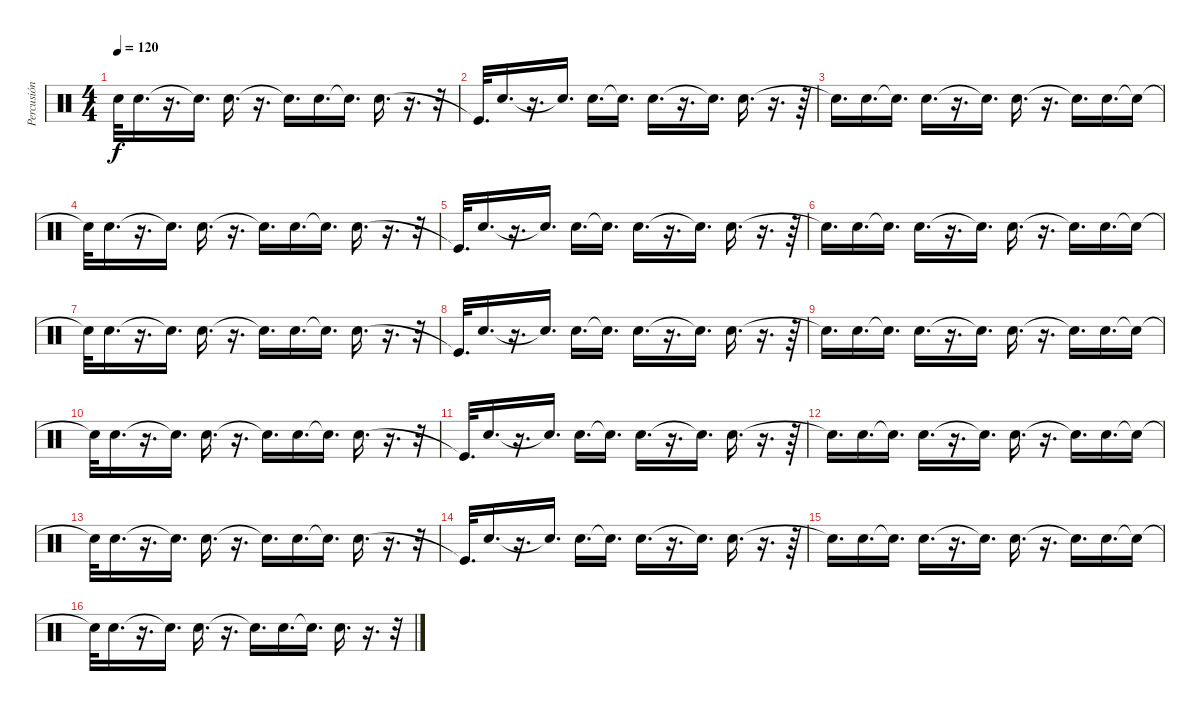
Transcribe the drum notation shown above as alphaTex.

\track ("Percusión" "Percusión") {instrument percussion}
\staff {score}
\articulation defaults
\ts (4 4)
\tempo 120
\clef neutral
\ks c "Snare (hit)"{t}.32{dy f} "Electric Snare (hit)".16{d}
r.16{d} "Snare (hit)"{t}.16{d} "Electric Snare (hit)".16{d} r.16{d} "Snare (hit)"{t}.16{d} "Electric Snare (hit)".16{d} "Snare (hit)"{t}.16{d} "Electric Snare (hit)".16{d} r.16{d} r.32 |
"Kick (hit)"{t}.32{d} "Electric Snare (hit)".16{d} r.16{d} "Snare (hit)"{t}.16{d} "Electric Snare (hit)".16{d} "Snare (hit)"{t}.16{d} "Electric Snare (hit)".16{d} r.16{d} "Snare (hit)"{t}.16{d} "Electric Snare (hit)".16{d} r.16{d} r.64 |
"Snare (hit)"{t}.16{d} "Electric Snare (hit)".16{d} "Snare (hit)"{t}.16{d} "Electric Snare (hit)".16{d} r.16{d} "Snare (hit)"{t}.16{d} "Electric Snare (hit)".16{d} r.16{d} "Snare (hit)"{t}.16{d} "Electric Snare (hit)".16{d} "Snare (hit)"{t}.16 |
"Snare (hit)"{t}.32 "Electric Snare (hit)".16{d} r.16{d} "Snare (hit)"{t}.16{d} "Electric Snare (hit)".16{d} r.16{d} "Snare (hit)"{t}.16{d} "Electric Snare (hit)".16{d} "Snare (hit)"{t}.16{d} "Electric Snare (hit)".16{d} r.16{d} r.32 |
"Kick (hit)"{t}.32{d} "Electric Snare (hit)".16{d} r.16{d} "Snare (hit)"{t}.16{d} "Electric Snare (hit)".16{d} "Snare (hit)"{t}.16{d} "Electric Snare (hit)".16{d} r.16{d} "Snare (hit)"{t}.16{d} "Electric Snare (hit)".16{d} r.16{d} r.64 |
"Snare (hit)"{t}.16{d} "Electric Snare (hit)".16{d} "Snare (hit)"{t}.16{d} "Electric Snare (hit)".16{d} r.16{d} "Snare (hit)"{t}.16{d} "Electric Snare (hit)".16{d} r.16{d} "Snare (hit)"{t}.16{d} "Electric Snare (hit)".16{d} "Snare (hit)"{t}.16 |
"Snare (hit)"{t}.32 "Electric Snare (hit)".16{d} r.16{d} "Snare (hit)"{t}.16{d} "Electric Snare (hit)".16{d} r.16{d} "Snare (hit)"{t}.16{d} "Electric Snare (hit)".16{d} "Snare (hit)"{t}.16{d} "Electric Snare (hit)".16{d} r.16{d} r.32 |
"Kick (hit)"{t}.32{d} "Electric Snare (hit)".16{d} r.16{d} "Snare (hit)"{t}.16{d} "Electric Snare (hit)".16{d} "Snare (hit)"{t}.16{d} "Electric Snare (hit)".16{d} r.16{d} "Snare (hit)"{t}.16{d} "Electric Snare (hit)".16{d} r.16{d} r.64 |
"Snare (hit)"{t}.16{d} "Electric Snare (hit)".16{d} "Snare (hit)"{t}.16{d} "Electric Snare (hit)".16{d} r.16{d} "Snare (hit)"{t}.16{d} "Electric Snare (hit)".16{d} r.16{d} "Snare (hit)"{t}.16{d} "Electric Snare (hit)".16{d} "Snare (hit)"{t}.16 |
"Snare (hit)"{t}.32 "Electric Snare (hit)".16{d} r.16{d} "Snare (hit)"{t}.16{d} "Electric Snare (hit)".16{d} r.16{d} "Snare (hit)"{t}.16{d} "Electric Snare (hit)".16{d} "Snare (hit)"{t}.16{d} "Electric Snare (hit)".16{d} r.16{d} r.32 |
"Kick (hit)"{t}.32{d} "Electric Snare (hit)".16{d} r.16{d} "Snare (hit)"{t}.16{d} "Electric Snare (hit)".16{d} "Snare (hit)"{t}.16{d} "Electric Snare (hit)".16{d} r.16{d} "Snare (hit)"{t}.16{d} "Electric Snare (hit)".16{d} r.16{d} r.64 |
"Snare (hit)"{t}.16{d} "Electric Snare (hit)".16{d} "Snare (hit)"{t}.16{d} "Electric Snare (hit)".16{d} r.16{d} "Snare (hit)"{t}.16{d} "Electric Snare (hit)".16{d} r.16{d} "Snare (hit)"{t}.16{d} "Electric Snare (hit)".16{d} "Snare (hit)"{t}.16 |
"Snare (hit)"{t}.32 "Electric Snare (hit)".16{d} r.16{d} "Snare (hit)"{t}.16{d} "Electric Snare (hit)".16{d} r.16{d} "Snare (hit)"{t}.16{d} "Electric Snare (hit)".16{d} "Snare (hit)"{t}.16{d} "Electric Snare (hit)".16{d} r.16{d} r.32 |
"Kick (hit)"{t}.32{d} "Electric Snare (hit)".16{d} r.16{d} "Snare (hit)"{t}.16{d} "Electric Snare (hit)".16{d} "Snare (hit)"{t}.16{d} "Electric Snare (hit)".16{d} r.16{d} "Snare (hit)"{t}.16{d} "Electric Snare (hit)".16{d} r.16{d} r.64 |
"Snare (hit)"{t}.16{d} "Electric Snare (hit)".16{d} "Snare (hit)"{t}.16{d} "Electric Snare (hit)".16{d} r.16{d} "Snare (hit)"{t}.16{d} "Electric Snare (hit)".16{d} r.16{d} "Snare (hit)"{t}.16{d} "Electric Snare (hit)".16{d} "Snare (hit)"{t}.16 |
"Snare (hit)"{t}.32 "Electric Snare (hit)".16{d} r.16{d} "Snare (hit)"{t}.16{d} "Electric Snare (hit)".16{d} r.16{d} "Snare (hit)"{t}.16{d} "Electric Snare (hit)".16{d} "Snare (hit)"{t}.16{d} "Electric Snare (hit)".16{d} r.16{d} r.32
